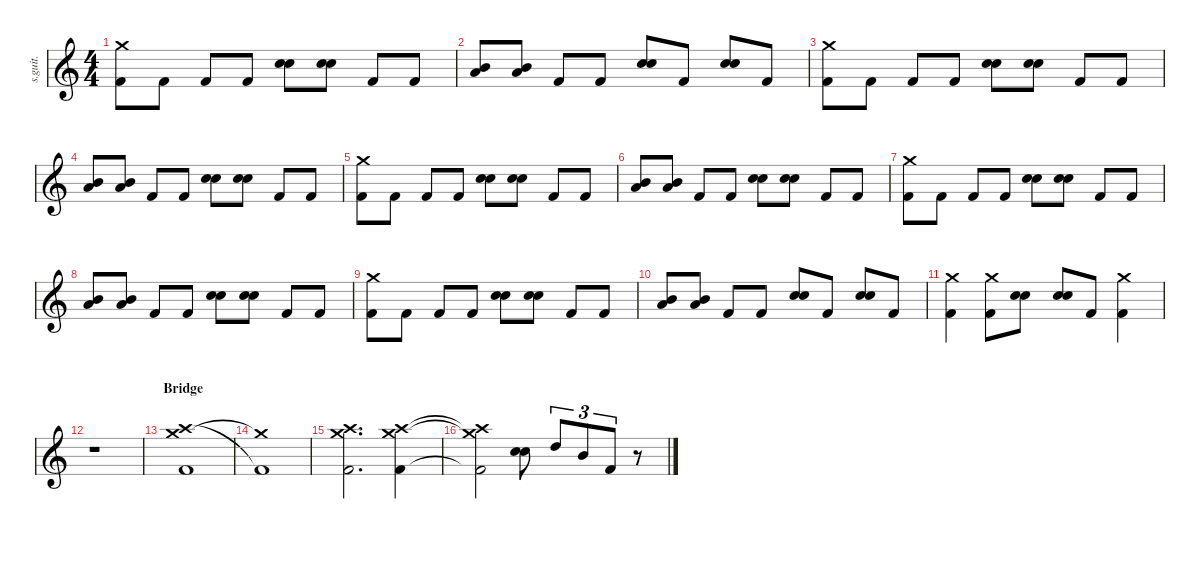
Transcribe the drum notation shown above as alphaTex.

\defaultSystemsLayout 4
\hideDynamics
\bracketExtendMode nobrackets
\track ("Taylor Hawkins" "s.guit.") {instrument percussion}
\staff {score}
\articulation defaults
\ts (4 4)
\tempo (154 hide)
\clef g2
\ks c
("Crash medium (hit)" "Kick (hit) 2").8{lyrics (0 "") lyrics (1 "") lyrics (2 "") lyrics (3 "") lyrics (4 "") dy f} "Kick (hit) 2".8{lyrics (0 "") lyrics (1 "") lyrics (2 "") lyrics (3 "") lyrics (4 "")} "Kick (hit) 2".8{lyrics (0 "") lyrics (1 "") lyrics (2 "") lyrics (3 "") lyrics (4 "")} "Kick (hit) 2".8{lyrics (0 "") lyrics (1 "") lyrics (2 "") lyrics (3 "") lyrics (4 "")} ("Snare (hit) 2" "Electric Snare (hit)").8{lyrics (0 "") lyrics (1 "") lyrics (2 "") lyrics (3 "") lyrics (4 "")} ("Snare (hit) 2" "Electric Snare (hit)").8{lyrics (0 "") lyrics (1 "") lyrics (2 "") lyrics (3 "") lyrics (4 "")} "Kick (hit) 2".8{lyrics (0 "") lyrics (1 "") lyrics (2 "") lyrics (3 "") lyrics (4 "")} "Kick (hit) 2".8{lyrics (0 "") lyrics (1 "") lyrics (2 "") lyrics (3 "") lyrics (4 "")} |
("Mid Tom (hit)" "Low Tom (hit)").8{lyrics (0 "") lyrics (1 "") lyrics (2 "") lyrics (3 "") lyrics (4 "")} ("Mid Tom (hit)" "Low Tom (hit)").8{lyrics (0 "") lyrics (1 "") lyrics (2 "") lyrics (3 "") lyrics (4 "")} "Kick (hit) 2".8{lyrics (0 "") lyrics (1 "") lyrics (2 "") lyrics (3 "") lyrics (4 "")} "Kick (hit) 2".8{lyrics (0 "") lyrics (1 "") lyrics (2 "") lyrics (3 "") lyrics (4 "")} ("Snare (hit) 2" "Electric Snare (hit)").8{lyrics (0 "") lyrics (1 "") lyrics (2 "") lyrics (3 "") lyrics (4 "")} "Kick (hit) 2".8{lyrics (0 "") lyrics (1 "") lyrics (2 "") lyrics (3 "") lyrics (4 "")} ("Snare (hit) 2" "Electric Snare (hit)").8{lyrics (0 "") lyrics (1 "") lyrics (2 "") lyrics (3 "") lyrics (4 "")} "Kick (hit) 2".8{lyrics (0 "") lyrics (1 "") lyrics (2 "") lyrics (3 "") lyrics (4 "")} |
("Crash medium (hit)" "Kick (hit) 2").8{lyrics (0 "") lyrics (1 "") lyrics (2 "") lyrics (3 "") lyrics (4 "")} "Kick (hit) 2".8{lyrics (0 "") lyrics (1 "") lyrics (2 "") lyrics (3 "") lyrics (4 "")} "Kick (hit) 2".8{lyrics (0 "") lyrics (1 "") lyrics (2 "") lyrics (3 "") lyrics (4 "")} "Kick (hit) 2".8{lyrics (0 "") lyrics (1 "") lyrics (2 "") lyrics (3 "") lyrics (4 "")} ("Snare (hit) 2" "Electric Snare (hit)").8{lyrics (0 "") lyrics (1 "") lyrics (2 "") lyrics (3 "") lyrics (4 "")} ("Snare (hit) 2" "Electric Snare (hit)").8{lyrics (0 "") lyrics (1 "") lyrics (2 "") lyrics (3 "") lyrics (4 "")} "Kick (hit) 2".8{lyrics (0 "") lyrics (1 "") lyrics (2 "") lyrics (3 "") lyrics (4 "")} "Kick (hit) 2".8{lyrics (0 "") lyrics (1 "") lyrics (2 "") lyrics (3 "") lyrics (4 "")} |
("Low Floor Tom (hit)" "Mid Tom (hit)").8{lyrics (0 "") lyrics (1 "") lyrics (2 "") lyrics (3 "") lyrics (4 "")} ("Low Floor Tom (hit)" "Mid Tom (hit)").8{lyrics (0 "") lyrics (1 "") lyrics (2 "") lyrics (3 "") lyrics (4 "")} "Kick (hit) 2".8{lyrics (0 "") lyrics (1 "") lyrics (2 "") lyrics (3 "") lyrics (4 "")} "Kick (hit) 2".8{lyrics (0 "") lyrics (1 "") lyrics (2 "") lyrics (3 "") lyrics (4 "")} ("Snare (hit) 2" "Electric Snare (hit)").8{lyrics (0 "") lyrics (1 "") lyrics (2 "") lyrics (3 "") lyrics (4 "")} ("Snare (hit) 2" "Electric Snare (hit)").8{lyrics (0 "") lyrics (1 "") lyrics (2 "") lyrics (3 "") lyrics (4 "")} "Kick (hit) 2".8{lyrics (0 "") lyrics (1 "") lyrics (2 "") lyrics (3 "") lyrics (4 "")} "Kick (hit) 2".8{lyrics (0 "") lyrics (1 "") lyrics (2 "") lyrics (3 "") lyrics (4 "")} |
("Crash medium (hit)" "Kick (hit) 2").8{lyrics (0 "") lyrics (1 "") lyrics (2 "") lyrics (3 "") lyrics (4 "")} "Kick (hit) 2".8{lyrics (0 "") lyrics (1 "") lyrics (2 "") lyrics (3 "") lyrics (4 "")} "Kick (hit) 2".8{lyrics (0 "") lyrics (1 "") lyrics (2 "") lyrics (3 "") lyrics (4 "")} "Kick (hit) 2".8{lyrics (0 "") lyrics (1 "") lyrics (2 "") lyrics (3 "") lyrics (4 "")} ("Snare (hit) 2" "Electric Snare (hit)").8{lyrics (0 "") lyrics (1 "") lyrics (2 "") lyrics (3 "") lyrics (4 "")} ("Snare (hit) 2" "Electric Snare (hit)").8{lyrics (0 "") lyrics (1 "") lyrics (2 "") lyrics (3 "") lyrics (4 "")} "Kick (hit) 2".8{lyrics (0 "") lyrics (1 "") lyrics (2 "") lyrics (3 "") lyrics (4 "")} "Kick (hit) 2".8{lyrics (0 "") lyrics (1 "") lyrics (2 "") lyrics (3 "") lyrics (4 "")} |
("Low Floor Tom (hit)" "Mid Tom (hit)").8{lyrics (0 "") lyrics (1 "") lyrics (2 "") lyrics (3 "") lyrics (4 "")} ("Low Floor Tom (hit)" "Mid Tom (hit)").8{lyrics (0 "") lyrics (1 "") lyrics (2 "") lyrics (3 "") lyrics (4 "")} "Kick (hit) 2".8{lyrics (0 "") lyrics (1 "") lyrics (2 "") lyrics (3 "") lyrics (4 "")} "Kick (hit) 2".8{lyrics (0 "") lyrics (1 "") lyrics (2 "") lyrics (3 "") lyrics (4 "")} ("Snare (hit) 2" "Electric Snare (hit)").8{lyrics (0 "") lyrics (1 "") lyrics (2 "") lyrics (3 "") lyrics (4 "")} ("Snare (hit) 2" "Electric Snare (hit)").8{lyrics (0 "") lyrics (1 "") lyrics (2 "") lyrics (3 "") lyrics (4 "")} "Kick (hit) 2".8{lyrics (0 "") lyrics (1 "") lyrics (2 "") lyrics (3 "") lyrics (4 "")} "Kick (hit) 2".8{lyrics (0 "") lyrics (1 "") lyrics (2 "") lyrics (3 "") lyrics (4 "")} |
("Crash medium (hit)" "Kick (hit) 2").8{lyrics (0 "") lyrics (1 "") lyrics (2 "") lyrics (3 "") lyrics (4 "")} "Kick (hit) 2".8{lyrics (0 "") lyrics (1 "") lyrics (2 "") lyrics (3 "") lyrics (4 "")} "Kick (hit) 2".8{lyrics (0 "") lyrics (1 "") lyrics (2 "") lyrics (3 "") lyrics (4 "")} "Kick (hit) 2".8{lyrics (0 "") lyrics (1 "") lyrics (2 "") lyrics (3 "") lyrics (4 "")} ("Snare (hit) 2" "Electric Snare (hit)").8{lyrics (0 "") lyrics (1 "") lyrics (2 "") lyrics (3 "") lyrics (4 "")} ("Snare (hit) 2" "Electric Snare (hit)").8{lyrics (0 "") lyrics (1 "") lyrics (2 "") lyrics (3 "") lyrics (4 "")} "Kick (hit) 2".8{lyrics (0 "") lyrics (1 "") lyrics (2 "") lyrics (3 "") lyrics (4 "")} "Kick (hit) 2".8{lyrics (0 "") lyrics (1 "") lyrics (2 "") lyrics (3 "") lyrics (4 "")} |
("Low Floor Tom (hit)" "Mid Tom (hit)").8{lyrics (0 "") lyrics (1 "") lyrics (2 "") lyrics (3 "") lyrics (4 "")} ("Low Floor Tom (hit)" "Mid Tom (hit)").8{lyrics (0 "") lyrics (1 "") lyrics (2 "") lyrics (3 "") lyrics (4 "")} "Kick (hit) 2".8{lyrics (0 "") lyrics (1 "") lyrics (2 "") lyrics (3 "") lyrics (4 "")} "Kick (hit) 2".8{lyrics (0 "") lyrics (1 "") lyrics (2 "") lyrics (3 "") lyrics (4 "")} ("Snare (hit) 2" "Electric Snare (hit)").8{lyrics (0 "") lyrics (1 "") lyrics (2 "") lyrics (3 "") lyrics (4 "")} ("Snare (hit) 2" "Electric Snare (hit)").8{lyrics (0 "") lyrics (1 "") lyrics (2 "") lyrics (3 "") lyrics (4 "")} "Kick (hit) 2".8{lyrics (0 "") lyrics (1 "") lyrics (2 "") lyrics (3 "") lyrics (4 "")} "Kick (hit) 2".8{lyrics (0 "") lyrics (1 "") lyrics (2 "") lyrics (3 "") lyrics (4 "")} |
("Crash medium (hit)" "Kick (hit) 2").8{lyrics (0 "") lyrics (1 "") lyrics (2 "") lyrics (3 "") lyrics (4 "")} "Kick (hit) 2".8{lyrics (0 "") lyrics (1 "") lyrics (2 "") lyrics (3 "") lyrics (4 "")} "Kick (hit) 2".8{lyrics (0 "") lyrics (1 "") lyrics (2 "") lyrics (3 "") lyrics (4 "")} "Kick (hit) 2".8{lyrics (0 "") lyrics (1 "") lyrics (2 "") lyrics (3 "") lyrics (4 "")} ("Snare (hit) 2" "Electric Snare (hit)").8{lyrics (0 "") lyrics (1 "") lyrics (2 "") lyrics (3 "") lyrics (4 "")} ("Snare (hit) 2" "Electric Snare (hit)").8{lyrics (0 "") lyrics (1 "") lyrics (2 "") lyrics (3 "") lyrics (4 "")} "Kick (hit) 2".8{lyrics (0 "") lyrics (1 "") lyrics (2 "") lyrics (3 "") lyrics (4 "")} "Kick (hit) 2".8{lyrics (0 "") lyrics (1 "") lyrics (2 "") lyrics (3 "") lyrics (4 "")} |
("Mid Tom (hit)" "Low Tom (hit)").8{lyrics (0 "") lyrics (1 "") lyrics (2 "") lyrics (3 "") lyrics (4 "")} ("Mid Tom (hit)" "Low Tom (hit)").8{lyrics (0 "") lyrics (1 "") lyrics (2 "") lyrics (3 "") lyrics (4 "")} "Kick (hit) 2".8{lyrics (0 "") lyrics (1 "") lyrics (2 "") lyrics (3 "") lyrics (4 "")} "Kick (hit) 2".8{lyrics (0 "") lyrics (1 "") lyrics (2 "") lyrics (3 "") lyrics (4 "")} ("Snare (hit) 2" "Electric Snare (hit)").8{lyrics (0 "") lyrics (1 "") lyrics (2 "") lyrics (3 "") lyrics (4 "")} "Kick (hit) 2".8{lyrics (0 "") lyrics (1 "") lyrics (2 "") lyrics (3 "") lyrics (4 "")} ("Snare (hit) 2" "Electric Snare (hit)").8{lyrics (0 "") lyrics (1 "") lyrics (2 "") lyrics (3 "") lyrics (4 "")} "Kick (hit) 2".8{lyrics (0 "") lyrics (1 "") lyrics (2 "") lyrics (3 "") lyrics (4 "")} |
("Crash medium (hit)" "Kick (hit) 2").4{lyrics (0 "") lyrics (1 "") lyrics (2 "") lyrics (3 "") lyrics (4 "")} ("Crash medium (hit)" "Kick (hit) 2").8{lyrics (0 "") lyrics (1 "") lyrics (2 "") lyrics (3 "") lyrics (4 "")} ("Snare (hit) 2" "Electric Snare (hit)").8{lyrics (0 "") lyrics (1 "") lyrics (2 "") lyrics (3 "") lyrics (4 "")} ("Snare (hit) 2" "Electric Snare (hit)").8{lyrics (0 "") lyrics (1 "") lyrics (2 "") lyrics (3 "") lyrics (4 "")} "Kick (hit) 2".8{lyrics (0 "") lyrics (1 "") lyrics (2 "") lyrics (3 "") lyrics (4 "")} ("Crash medium (hit)" "Kick (hit) 2").4{lyrics (0 "") lyrics (1 "") lyrics (2 "") lyrics (3 "") lyrics (4 "")} |
r.1 |
\section ("" "Bridge")
("Crash medium (hit)" "Crash high (hit)" "Kick (hit) 2").1{lyrics (0 "") lyrics (1 "") lyrics (2 "") lyrics (3 "") lyrics (4 "")} |
("Crash medium (hit)"{t} "Kick (hit) 2"{t}).1{lyrics (0 "") lyrics (1 "") lyrics (2 "") lyrics (3 "") lyrics (4 "")} |
("Crash medium (hit)" "Crash high (hit)" "Kick (hit) 2").2{d lyrics (0 "") lyrics (1 "") lyrics (2 "") lyrics (3 "") lyrics (4 "")} ("Crash medium (hit)" "Crash high (hit)" "Kick (hit) 2").4{lyrics (0 "") lyrics (1 "") lyrics (2 "") lyrics (3 "") lyrics (4 "")} |
("Crash medium (hit)"{t} "Crash high (hit)"{t} "Kick (hit) 2"{t}).2{lyrics (0 "") lyrics (1 "") lyrics (2 "") lyrics (3 "") lyrics (4 "")} ("Snare (hit) 2" "Electric Snare (hit)").8{lyrics (0 "") lyrics (1 "") lyrics (2 "") lyrics (3 "") lyrics (4 "")} "High Tom (hit)".8{tu (3 2) lyrics (0 "") lyrics (1 "") lyrics (2 "") lyrics (3 "") lyrics (4 "")} "Mid Tom (hit)".8{tu (3 2) lyrics (0 "") lyrics (1 "") lyrics (2 "") lyrics (3 "") lyrics (4 "")} "Kick (hit) 2".8{tu (3 2) lyrics (0 "") lyrics (1 "") lyrics (2 "") lyrics (3 "") lyrics (4 "")} r.8
